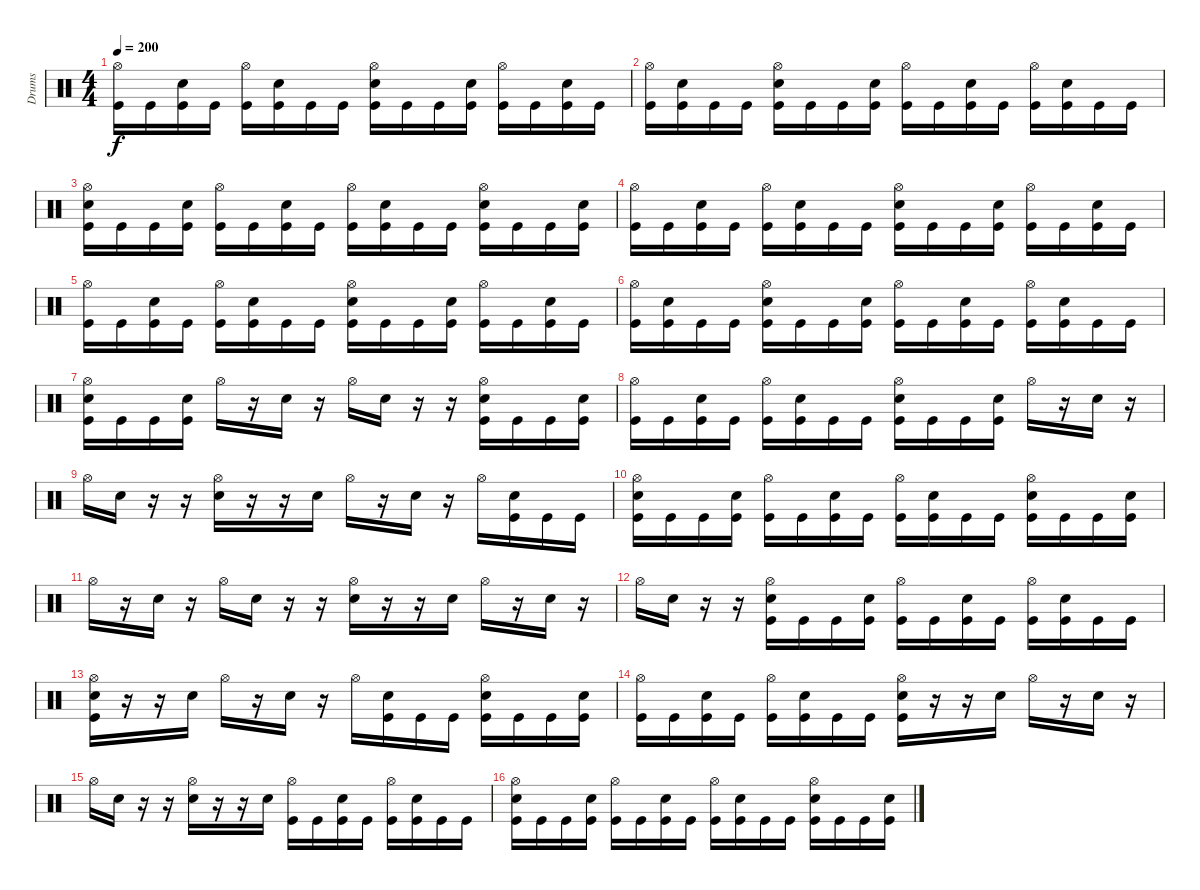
\track ("Drums" "Drums") {instrument percussion}
\staff {score}
\articulation defaults
\ts (4 4)
\tempo 200
\clef neutral
\ks c
("Hi-Hat (open)" "Kick (hit)").16{dy f} "Kick (hit)".16 ("Snare (hit) 2" "Kick (hit)").16 "Kick (hit)".16 ("Hi-Hat (open)" "Kick (hit)").16 ("Snare (hit) 2" "Kick (hit)").16 "Kick (hit)".16 "Kick (hit)".16 ("Hi-Hat (open)" "Snare (hit) 2" "Kick (hit)").16 "Kick (hit)".16 "Kick (hit)".16 ("Snare (hit) 2" "Kick (hit)").16 ("Hi-Hat (open)" "Kick (hit)").16 "Kick (hit)".16 ("Snare (hit) 2" "Kick (hit)").16 "Kick (hit)".16 |
("Hi-Hat (open)" "Kick (hit)").16 ("Snare (hit) 2" "Kick (hit)").16 "Kick (hit)".16 "Kick (hit)".16 ("Hi-Hat (open)" "Snare (hit) 2" "Kick (hit)").16 "Kick (hit)".16 "Kick (hit)".16 ("Snare (hit) 2" "Kick (hit)").16 ("Hi-Hat (open)" "Kick (hit)").16 "Kick (hit)".16 ("Snare (hit) 2" "Kick (hit)").16 "Kick (hit)".16 ("Hi-Hat (open)" "Kick (hit)").16 ("Snare (hit) 2" "Kick (hit)").16 "Kick (hit)".16 "Kick (hit)".16 |
("Hi-Hat (open)" "Snare (hit) 2" "Kick (hit)").16 "Kick (hit)".16 "Kick (hit)".16 ("Snare (hit) 2" "Kick (hit)").16 ("Hi-Hat (open)" "Kick (hit)").16 "Kick (hit)".16 ("Snare (hit) 2" "Kick (hit)").16 "Kick (hit)".16 ("Hi-Hat (open)" "Kick (hit)").16 ("Snare (hit) 2" "Kick (hit)").16 "Kick (hit)".16 "Kick (hit)".16 ("Hi-Hat (open)" "Snare (hit) 2" "Kick (hit)").16 "Kick (hit)".16 "Kick (hit)".16 ("Snare (hit) 2" "Kick (hit)").16 |
("Hi-Hat (open)" "Kick (hit)").16 "Kick (hit)".16 ("Snare (hit) 2" "Kick (hit)").16 "Kick (hit)".16 ("Hi-Hat (open)" "Kick (hit)").16 ("Snare (hit) 2" "Kick (hit)").16 "Kick (hit)".16 "Kick (hit)".16 ("Hi-Hat (open)" "Snare (hit) 2" "Kick (hit)").16 "Kick (hit)".16 "Kick (hit)".16 ("Snare (hit) 2" "Kick (hit)").16 ("Hi-Hat (open)" "Kick (hit)").16 "Kick (hit)".16 ("Snare (hit) 2" "Kick (hit)").16 "Kick (hit)".16 |
("Hi-Hat (open)" "Kick (hit)").16 "Kick (hit)".16 ("Snare (hit) 2" "Kick (hit)").16 "Kick (hit)".16 ("Hi-Hat (open)" "Kick (hit)").16 ("Snare (hit) 2" "Kick (hit)").16 "Kick (hit)".16 "Kick (hit)".16 ("Hi-Hat (open)" "Snare (hit) 2" "Kick (hit)").16 "Kick (hit)".16 "Kick (hit)".16 ("Snare (hit) 2" "Kick (hit)").16 ("Hi-Hat (open)" "Kick (hit)").16 "Kick (hit)".16 ("Snare (hit) 2" "Kick (hit)").16 "Kick (hit)".16 |
("Hi-Hat (open)" "Kick (hit)").16 ("Snare (hit) 2" "Kick (hit)").16 "Kick (hit)".16 "Kick (hit)".16 ("Hi-Hat (open)" "Snare (hit) 2" "Kick (hit)").16 "Kick (hit)".16 "Kick (hit)".16 ("Snare (hit) 2" "Kick (hit)").16 ("Hi-Hat (open)" "Kick (hit)").16 "Kick (hit)".16 ("Snare (hit) 2" "Kick (hit)").16 "Kick (hit)".16 ("Hi-Hat (open)" "Kick (hit)").16 ("Snare (hit) 2" "Kick (hit)").16 "Kick (hit)".16 "Kick (hit)".16 |
("Hi-Hat (open)" "Snare (hit) 2" "Kick (hit)").16 "Kick (hit)".16 "Kick (hit)".16 ("Snare (hit) 2" "Kick (hit)").16 "Hi-Hat (open)".16 r.16 "Snare (hit) 2".16 r.16 "Hi-Hat (open)".16 "Snare (hit) 2".16 r.16 r.16 ("Hi-Hat (open)" "Snare (hit) 2" "Kick (hit)").16 "Kick (hit)".16 "Kick (hit)".16 ("Snare (hit) 2" "Kick (hit)").16 |
("Hi-Hat (open)" "Kick (hit)").16 "Kick (hit)".16 ("Snare (hit) 2" "Kick (hit)").16 "Kick (hit)".16 ("Hi-Hat (open)" "Kick (hit)").16 ("Snare (hit) 2" "Kick (hit)").16 "Kick (hit)".16 "Kick (hit)".16 ("Hi-Hat (open)" "Snare (hit) 2" "Kick (hit)").16 "Kick (hit)".16 "Kick (hit)".16 ("Snare (hit) 2" "Kick (hit)").16 "Hi-Hat (open)".16 r.16 "Snare (hit) 2".16 r.16 |
"Hi-Hat (open)".16 "Snare (hit) 2".16 r.16 r.16 ("Hi-Hat (open)" "Snare (hit) 2").16 r.16 r.16 "Snare (hit) 2".16 "Hi-Hat (open)".16 r.16 "Snare (hit) 2".16 r.16 "Hi-Hat (open)".16 ("Snare (hit) 2" "Kick (hit)").16 "Kick (hit)".16 "Kick (hit)".16 |
("Hi-Hat (open)" "Snare (hit) 2" "Kick (hit)").16 "Kick (hit)".16 "Kick (hit)".16 ("Snare (hit) 2" "Kick (hit)").16 ("Hi-Hat (open)" "Kick (hit)").16 "Kick (hit)".16 ("Snare (hit) 2" "Kick (hit)").16 "Kick (hit)".16 ("Hi-Hat (open)" "Kick (hit)").16 ("Snare (hit) 2" "Kick (hit)").16 "Kick (hit)".16 "Kick (hit)".16 ("Hi-Hat (open)" "Snare (hit) 2" "Kick (hit)").16 "Kick (hit)".16 "Kick (hit)".16 ("Snare (hit) 2" "Kick (hit)").16 |
"Hi-Hat (open)".16 r.16 "Snare (hit) 2".16 r.16 "Hi-Hat (open)".16 "Snare (hit) 2".16 r.16 r.16 ("Hi-Hat (open)" "Snare (hit) 2").16 r.16 r.16 "Snare (hit) 2".16 "Hi-Hat (open)".16 r.16 "Snare (hit) 2".16 r.16 |
"Hi-Hat (open)".16 "Snare (hit) 2".16 r.16 r.16 ("Hi-Hat (open)" "Snare (hit) 2" "Kick (hit)").16 "Kick (hit)".16 "Kick (hit)".16 ("Snare (hit) 2" "Kick (hit)").16 ("Hi-Hat (open)" "Kick (hit)").16 "Kick (hit)".16 ("Snare (hit) 2" "Kick (hit)").16 "Kick (hit)".16 ("Hi-Hat (open)" "Kick (hit)").16 ("Snare (hit) 2" "Kick (hit)").16 "Kick (hit)".16 "Kick (hit)".16 |
("Hi-Hat (open)" "Snare (hit) 2" "Kick (hit)").16 r.16 r.16 "Snare (hit) 2".16 "Hi-Hat (open)".16 r.16 "Snare (hit) 2".16 r.16 "Hi-Hat (open)".16 ("Snare (hit) 2" "Kick (hit)").16 "Kick (hit)".16 "Kick (hit)".16 ("Hi-Hat (open)" "Snare (hit) 2" "Kick (hit)").16 "Kick (hit)".16 "Kick (hit)".16 ("Snare (hit) 2" "Kick (hit)").16 |
("Hi-Hat (open)" "Kick (hit)").16 "Kick (hit)".16 ("Snare (hit) 2" "Kick (hit)").16 "Kick (hit)".16 ("Hi-Hat (open)" "Kick (hit)").16 ("Snare (hit) 2" "Kick (hit)").16 "Kick (hit)".16 "Kick (hit)".16 ("Hi-Hat (open)" "Snare (hit) 2" "Kick (hit)").16 r.16 r.16 "Snare (hit) 2".16 "Hi-Hat (open)".16 r.16 "Snare (hit) 2".16 r.16 |
"Hi-Hat (open)".16 "Snare (hit) 2".16 r.16 r.16 ("Hi-Hat (open)" "Snare (hit) 2").16 r.16 r.16 "Snare (hit) 2".16 ("Hi-Hat (open)" "Kick (hit)").16 "Kick (hit)".16 ("Snare (hit) 2" "Kick (hit)").16 "Kick (hit)".16 ("Hi-Hat (open)" "Kick (hit)").16 ("Snare (hit) 2" "Kick (hit)").16 "Kick (hit)".16 "Kick (hit)".16 |
("Hi-Hat (open)" "Snare (hit) 2" "Kick (hit)").16 "Kick (hit)".16 "Kick (hit)".16 ("Snare (hit) 2" "Kick (hit)").16 ("Hi-Hat (open)" "Kick (hit)").16 "Kick (hit)".16 ("Snare (hit) 2" "Kick (hit)").16 "Kick (hit)".16 ("Hi-Hat (open)" "Kick (hit)").16 ("Snare (hit) 2" "Kick (hit)").16 "Kick (hit)".16 "Kick (hit)".16 ("Hi-Hat (open)" "Snare (hit) 2" "Kick (hit)").16 "Kick (hit)".16 "Kick (hit)".16 ("Snare (hit) 2" "Kick (hit)").16
